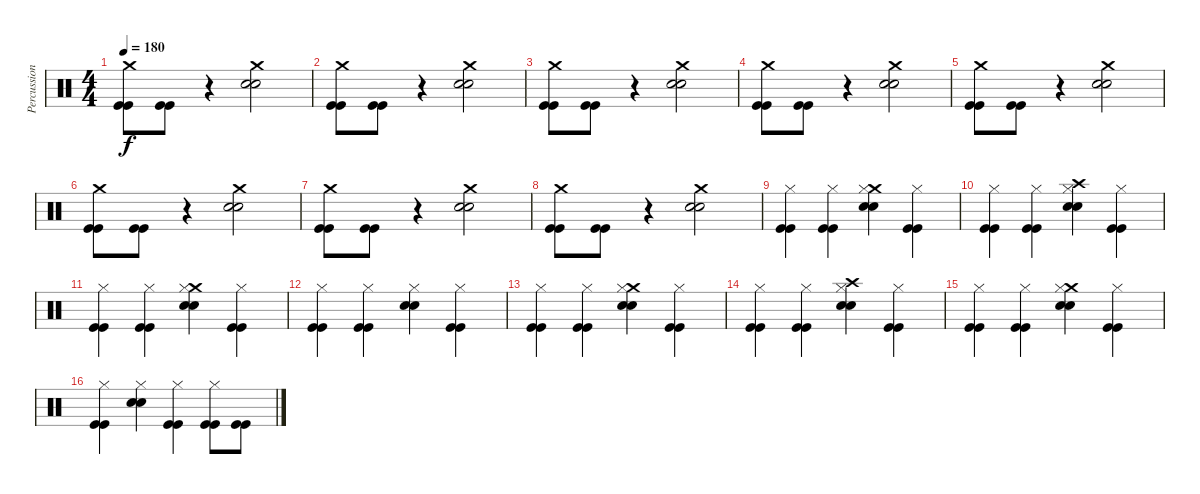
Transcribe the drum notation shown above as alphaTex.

\track ("Percussion" "Percussion") {instrument percussion}
\staff {score}
\articulation defaults
\ts (4 4)
\tempo 180
\clef neutral
\ks c
("Crash medium (hit)" "Kick (hit)" "Kick (hit)").8{dy f} ("Kick (hit)" "Kick (hit)").8 r.4 ("Snare (hit) 2" "Snare (hit) 2" "Crash medium (hit)").2 |
("Crash medium (hit)" "Kick (hit)" "Kick (hit)").8 ("Kick (hit)" "Kick (hit)").8 r.4 ("Snare (hit) 2" "Snare (hit) 2" "Crash medium (hit)").2 |
("Crash medium (hit)" "Kick (hit)" "Kick (hit)").8 ("Kick (hit)" "Kick (hit)").8 r.4 ("Snare (hit) 2" "Snare (hit) 2" "Crash medium (hit)").2 |
("Crash medium (hit)" "Kick (hit)" "Kick (hit)").8 ("Kick (hit)" "Kick (hit)").8 r.4 ("Snare (hit) 2" "Snare (hit) 2" "Crash medium (hit)").2 |
("Crash medium (hit)" "Kick (hit)" "Kick (hit)").8 ("Kick (hit)" "Kick (hit)").8 r.4 ("Snare (hit) 2" "Snare (hit) 2" "Crash medium (hit)").2 |
("Crash medium (hit)" "Kick (hit)" "Kick (hit)").8 ("Kick (hit)" "Kick (hit)").8 r.4 ("Snare (hit) 2" "Snare (hit) 2" "Crash medium (hit)").2 |
("Crash medium (hit)" "Kick (hit)" "Kick (hit)").8 ("Kick (hit)" "Kick (hit)").8 r.4 ("Snare (hit) 2" "Snare (hit) 2" "Crash medium (hit)").2 |
("Crash medium (hit)" "Kick (hit)" "Kick (hit)").8 ("Kick (hit)" "Kick (hit)").8 r.4 ("Snare (hit) 2" "Snare (hit) 2" "Crash medium (hit)").2 |
("Hi-Hat (closed)" "Kick (hit)" "Kick (hit)").4 ("Hi-Hat (closed)" "Kick (hit)" "Kick (hit)").4 ("Crash medium (hit)" "Hi-Hat (closed)" "Snare (hit) 2" "Snare (hit) 2").4 ("Hi-Hat (closed)" "Kick (hit)" "Kick (hit)").4 |
("Hi-Hat (closed)" "Kick (hit)" "Kick (hit)").4 ("Hi-Hat (closed)" "Kick (hit)" "Kick (hit)").4 ("Crash high (hit)" "Hi-Hat (closed)" "Snare (hit) 2" "Snare (hit) 2").4 ("Hi-Hat (closed)" "Kick (hit)" "Kick (hit)").4 |
("Hi-Hat (closed)" "Kick (hit)" "Kick (hit)").4 ("Hi-Hat (closed)" "Kick (hit)" "Kick (hit)").4 ("Crash medium (hit)" "Hi-Hat (closed)" "Snare (hit) 2" "Snare (hit) 2").4 ("Hi-Hat (closed)" "Kick (hit)" "Kick (hit)").4 |
("Hi-Hat (closed)" "Kick (hit)" "Kick (hit)").4 ("Hi-Hat (closed)" "Kick (hit)" "Kick (hit)").4 ("Hi-Hat (closed)" "Snare (hit) 2" "Snare (hit) 2").4 ("Hi-Hat (closed)" "Kick (hit)" "Kick (hit)").4 |
("Hi-Hat (closed)" "Kick (hit)" "Kick (hit)").4 ("Hi-Hat (closed)" "Kick (hit)" "Kick (hit)").4 ("Crash medium (hit)" "Hi-Hat (closed)" "Snare (hit) 2" "Snare (hit) 2").4 ("Hi-Hat (closed)" "Kick (hit)" "Kick (hit)").4 |
("Hi-Hat (closed)" "Kick (hit)" "Kick (hit)").4 ("Hi-Hat (closed)" "Kick (hit)" "Kick (hit)").4 ("Crash high (hit)" "Hi-Hat (closed)" "Snare (hit) 2" "Snare (hit) 2").4 ("Hi-Hat (closed)" "Kick (hit)" "Kick (hit)").4 |
("Hi-Hat (closed)" "Kick (hit)" "Kick (hit)").4 ("Hi-Hat (closed)" "Kick (hit)" "Kick (hit)").4 ("Crash medium (hit)" "Hi-Hat (closed)" "Snare (hit) 2" "Snare (hit) 2").4 ("Hi-Hat (closed)" "Kick (hit)" "Kick (hit)").4 |
("Hi-Hat (closed)" "Kick (hit)" "Kick (hit)").4 ("Hi-Hat (closed)" "Snare (hit) 2" "Snare (hit) 2").4 ("Hi-Hat (closed)" "Kick (hit)" "Kick (hit)").4 ("Hi-Hat (closed)" "Kick (hit)" "Kick (hit)").8 ("Kick (hit)" "Kick (hit)").8
